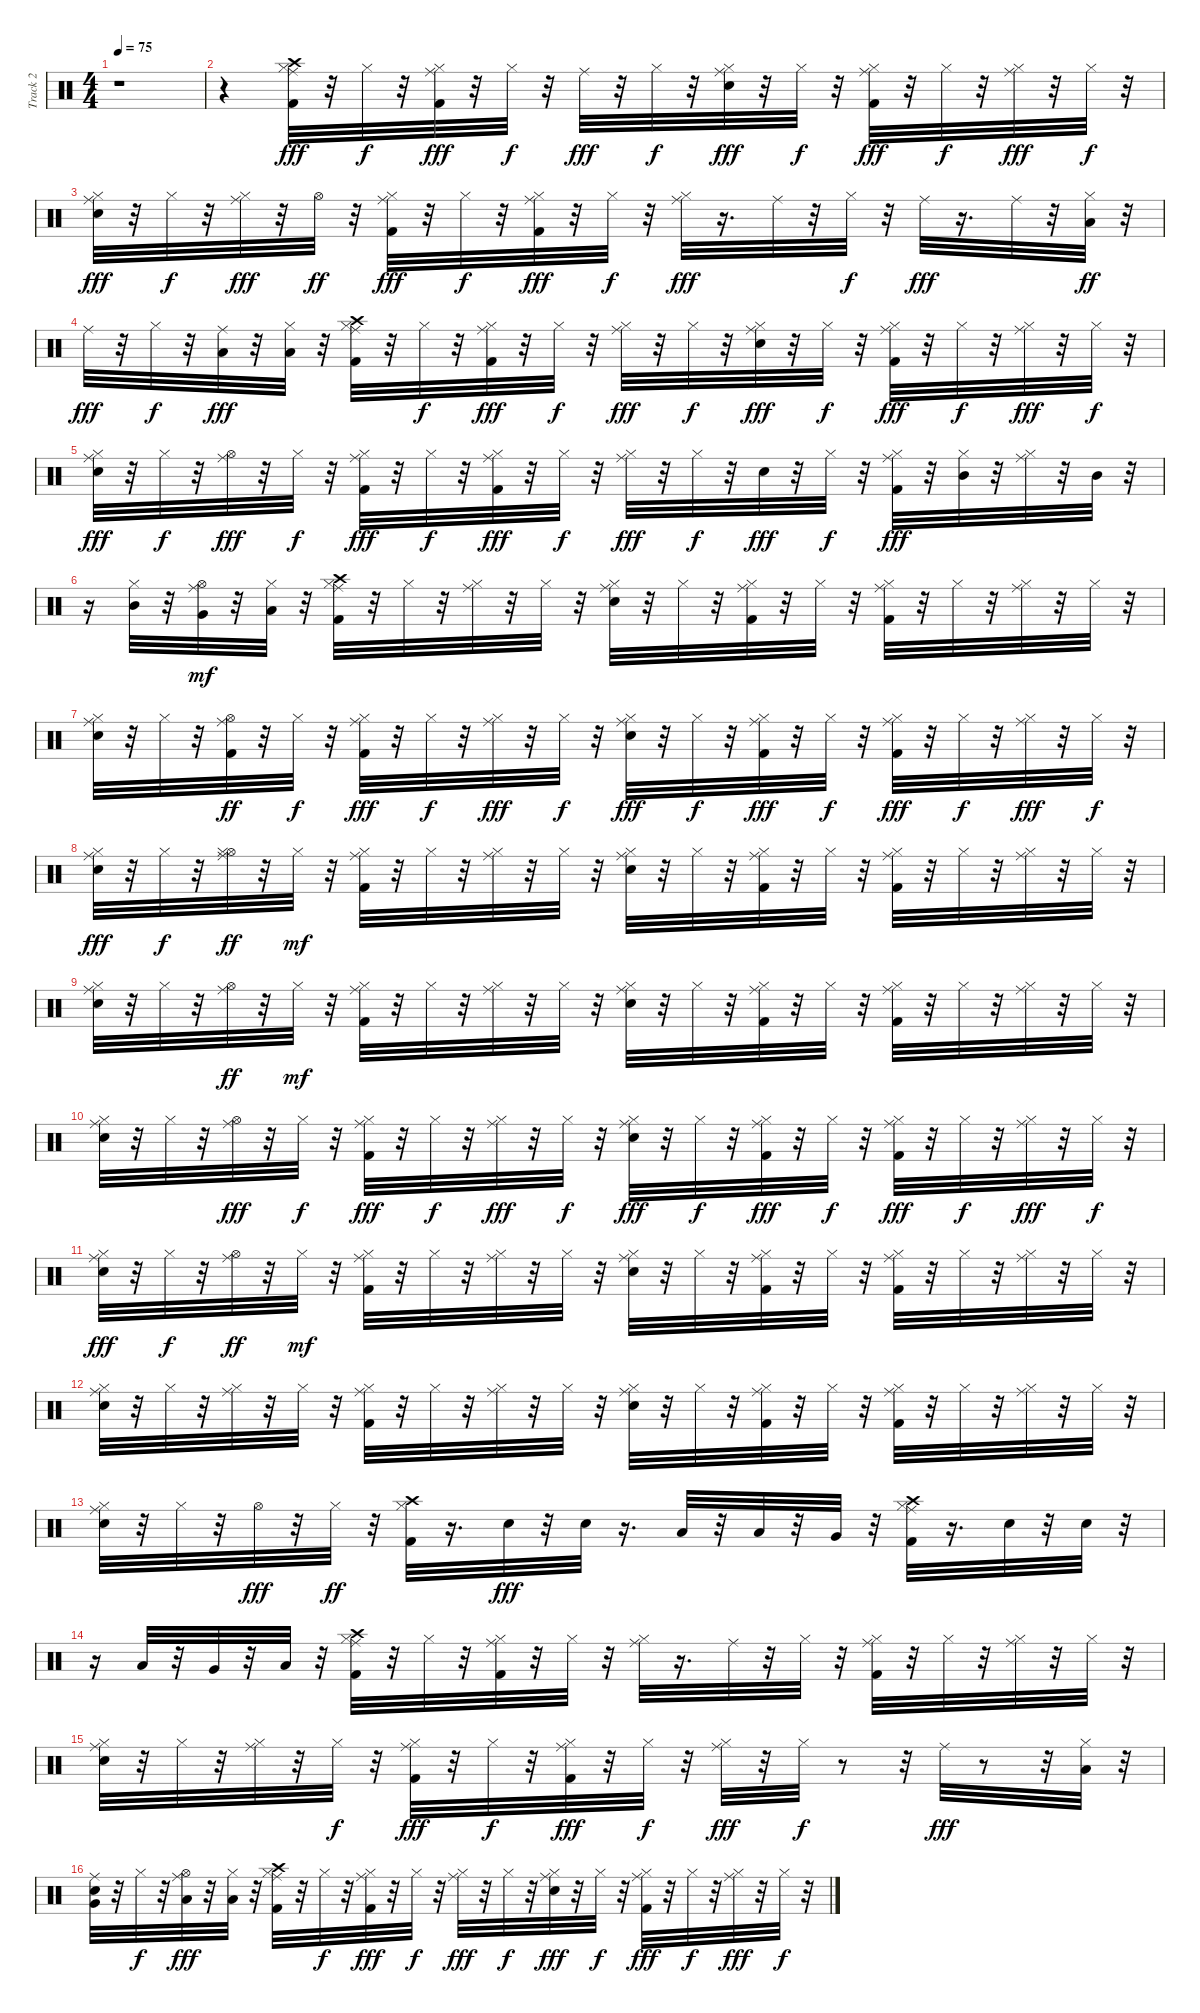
\track ("Track 2" "Track 2") {instrument percussion}
\staff {score}
\articulation defaults
\ts (4 4)
\tempo 75
\clef neutral
\ks c
r.1{dy fff} |
r.4 ("Kick (hit) 2" "Ride (middle)" "Crash high (hit)" "Hi-Hat (closed)").32{balance 8} r.32 "Hi-Hat (closed)".32{dy f} r.32 ("Kick (hit) 2" "Ride (middle)" "Hi-Hat (closed)").32{dy fff} r.32 "Hi-Hat (closed)".32{dy f} r.32 "Ride (middle)".32{dy fff} r.32 "Hi-Hat (closed)".32{dy f} r.32 ("Ride (middle)" "Snare (hit) 2" "Hi-Hat (closed)").32{dy fff} r.32 "Hi-Hat (closed)".32{dy f} r.32 ("Ride (middle)" "Kick (hit) 2" "Hi-Hat (closed)").32{dy fff} r.32 "Hi-Hat (closed)".32{dy f} r.32 ("Ride (middle)" "Hi-Hat (closed)").32{dy fff} r.32 "Hi-Hat (closed)".32{dy f} r.32 |
("Ride (middle)" "Snare (hit) 2" "Hi-Hat (closed)").32{dy fff} r.32 "Hi-Hat (closed)".32{dy f} r.32 ("Ride (middle)" "Hi-Hat (closed)").32{dy fff} r.32 "Hi-Hat (open)".32{dy ff} r.32 ("Kick (hit) 2" "Ride (middle)" "Hi-Hat (closed)").32{dy fff} r.32 "Hi-Hat (closed)".32{dy f} r.32 ("Kick (hit) 2" "Ride (middle)" "Hi-Hat (closed)").32{dy fff} r.32 "Hi-Hat (closed)".32{dy f} r.32 ("Ride (middle)" "Hi-Hat (closed)").32{dy fff} r.16{d} "Ride (middle)".32 r.32 "Hi-Hat (closed)".32{dy f} r.32 "Ride (middle)".32{dy fff} r.16{d} "Ride (middle)".32 r.32 ("Low Tom (hit)" "Hi-Hat (closed)").32{dy ff} r.32 |
"Ride (middle)".32{dy fff} r.32 "Hi-Hat (closed)".32{dy f} r.32 ("Ride (middle)" "Low Floor Tom (hit)").32{dy fff} r.32 ("Low Floor Tom (hit)" "Hi-Hat (closed)").32 r.32 ("Kick (hit) 2" "Ride (middle)" "Crash high (hit)" "Hi-Hat (closed)").32 r.32 "Hi-Hat (closed)".32{dy f} r.32 ("Kick (hit) 2" "Ride (middle)" "Hi-Hat (closed)").32{dy fff} r.32 "Hi-Hat (closed)".32{dy f} r.32 ("Ride (middle)" "Hi-Hat (closed)").32{dy fff} r.32 "Hi-Hat (closed)".32{dy f} r.32 ("Ride (middle)" "Snare (hit) 2" "Hi-Hat (closed)").32{dy fff} r.32 "Hi-Hat (closed)".32{dy f} r.32 ("Ride (middle)" "Kick (hit) 2" "Hi-Hat (closed)").32{dy fff} r.32 "Hi-Hat (closed)".32{dy f} r.32 ("Ride (middle)" "Hi-Hat (closed)").32{dy fff} r.32 "Hi-Hat (closed)".32{dy f} r.32 |
("Snare (hit) 2" "Ride (middle)" "Hi-Hat (closed)").32{dy fff} r.32 "Hi-Hat (closed)".32{dy f} r.32 ("Ride (middle)" "Hi-Hat (open)").32{dy fff} r.32 "Hi-Hat (closed)".32{dy f} r.32 ("Kick (hit) 2" "Ride (middle)" "Hi-Hat (closed)").32{dy fff} r.32 "Hi-Hat (closed)".32{dy f} r.32 ("Ride (middle)" "Kick (hit) 2" "Hi-Hat (closed)").32{dy fff} r.32 "Hi-Hat (closed)".32{dy f} r.32 ("Ride (middle)" "Hi-Hat (closed)").32{dy fff} r.32 "Hi-Hat (closed)".32{dy f} r.32 "Snare (hit) 2".32{dy fff} r.32 "Hi-Hat (closed)".32{dy f} r.32 ("Ride (middle)" "Kick (hit) 2" "Hi-Hat (closed)").32{dy fff} r.32 ("Mid Tom (hit)" "Hi-Hat (closed)").32 r.32 ("Ride (middle)" "Hi-Hat (closed)").32 r.32 "Mid Tom (hit)".32 r.32 |
r.16 ("Mid Tom (hit)" "Hi-Hat (closed)").32 r.32 ("Ride (middle)" "Very Low Tom (hit)" "Hi-Hat (open)").32{dy mf} r.32 ("Low Floor Tom (hit)" "Hi-Hat (closed)").32 r.32 ("Kick (hit) 2" "Ride (middle)" "Crash high (hit)" "Hi-Hat (closed)").32 r.32 "Hi-Hat (closed)".32 r.32 ("Ride (middle)" "Hi-Hat (closed)").32 r.32 "Hi-Hat (closed)".32 r.32 ("Snare (hit) 2" "Ride (middle)" "Hi-Hat (closed)").32 r.32 "Hi-Hat (closed)".32 r.32 ("Ride (middle)" "Kick (hit) 2" "Hi-Hat (closed)").32 r.32 "Hi-Hat (closed)".32 r.32 ("Kick (hit) 2" "Ride (middle)" "Hi-Hat (closed)").32 r.32 "Hi-Hat (closed)".32 r.32 ("Ride (middle)" "Hi-Hat (closed)").32 r.32 "Hi-Hat (closed)".32 r.32 |
("Snare (hit) 2" "Ride (middle)" "Hi-Hat (closed)").32 r.32 "Hi-Hat (closed)".32 r.32 ("Kick (hit) 2" "Ride (middle)" "Hi-Hat (open)").32{dy ff} r.32 "Hi-Hat (closed)".32{dy f} r.32 ("Kick (hit) 2" "Ride (middle)" "Hi-Hat (closed)").32{dy fff} r.32 "Hi-Hat (closed)".32{dy f} r.32 ("Ride (middle)" "Hi-Hat (closed)").32{dy fff} r.32 "Hi-Hat (closed)".32{dy f} r.32 ("Snare (hit) 2" "Ride (middle)" "Hi-Hat (closed)").32{dy fff} r.32 "Hi-Hat (closed)".32{dy f} r.32 ("Kick (hit) 2" "Ride (middle)" "Hi-Hat (closed)").32{dy fff} r.32 "Hi-Hat (closed)".32{dy f} r.32 ("Kick (hit) 2" "Ride (middle)" "Hi-Hat (closed)").32{dy fff} r.32 "Hi-Hat (closed)".32{dy f} r.32 ("Ride (middle)" "Hi-Hat (closed)").32{dy fff} r.32 "Hi-Hat (closed)".32{dy f} r.32 |
("Ride (middle)" "Snare (hit) 2" "Hi-Hat (closed)").32{dy fff} r.32 "Hi-Hat (closed)".32{dy f} r.32 ("Ride (middle)" "Hi-Hat (open)" "Hi-Hat (closed)").32{dy ff} r.32 "Hi-Hat (closed)".32{dy mf} r.32 ("Ride (middle)" "Kick (hit) 2" "Hi-Hat (closed)").32 r.32 "Hi-Hat (closed)".32 r.32 ("Ride (middle)" "Hi-Hat (closed)").32 r.32 "Hi-Hat (closed)".32 r.32 ("Snare (hit) 2" "Ride (middle)" "Hi-Hat (closed)").32 r.32 "Hi-Hat (closed)".32 r.32 ("Kick (hit) 2" "Ride (middle)" "Hi-Hat (closed)").32 r.32 "Hi-Hat (closed)".32 r.32 ("Kick (hit) 2" "Ride (middle)" "Hi-Hat (closed)").32 r.32 "Hi-Hat (closed)".32 r.32 ("Ride (middle)" "Hi-Hat (closed)").32 r.32 "Hi-Hat (closed)".32 r.32 |
("Snare (hit) 2" "Ride (middle)" "Hi-Hat (closed)").32 r.32 "Hi-Hat (closed)".32 r.32 ("Ride (middle)" "Hi-Hat (open)").32{dy ff} r.32 "Hi-Hat (closed)".32{dy mf} r.32 ("Ride (middle)" "Kick (hit) 2" "Hi-Hat (closed)").32 r.32 "Hi-Hat (closed)".32 r.32 ("Ride (middle)" "Hi-Hat (closed)").32 r.32 "Hi-Hat (closed)".32 r.32 ("Ride (middle)" "Snare (hit) 2" "Hi-Hat (closed)").32 r.32 "Hi-Hat (closed)".32 r.32 ("Ride (middle)" "Kick (hit) 2" "Hi-Hat (closed)").32 r.32 "Hi-Hat (closed)".32 r.32 ("Kick (hit) 2" "Ride (middle)" "Hi-Hat (closed)").32 r.32 "Hi-Hat (closed)".32 r.32 ("Ride (middle)" "Hi-Hat (closed)").32 r.32 "Hi-Hat (closed)".32 r.32 |
("Snare (hit) 2" "Ride (middle)" "Hi-Hat (closed)").32 r.32 "Hi-Hat (closed)".32 r.32 ("Ride (middle)" "Hi-Hat (open)").32{dy fff} r.32 "Hi-Hat (closed)".32{dy f} r.32 ("Kick (hit) 2" "Ride (middle)" "Hi-Hat (closed)").32{dy fff} r.32 "Hi-Hat (closed)".32{dy f} r.32 ("Ride (middle)" "Hi-Hat (closed)").32{dy fff} r.32 "Hi-Hat (closed)".32{dy f} r.32 ("Snare (hit) 2" "Ride (middle)" "Hi-Hat (closed)").32{dy fff} r.32 "Hi-Hat (closed)".32{dy f} r.32 ("Ride (middle)" "Kick (hit) 2" "Hi-Hat (closed)").32{dy fff} r.32 "Hi-Hat (closed)".32{dy f} r.32 ("Ride (middle)" "Kick (hit) 2" "Hi-Hat (closed)").32{dy fff} r.32 "Hi-Hat (closed)".32{dy f} r.32 ("Ride (middle)" "Hi-Hat (closed)").32{dy fff} r.32 "Hi-Hat (closed)".32{dy f} r.32 |
("Snare (hit) 2" "Ride (middle)" "Hi-Hat (closed)").32{dy fff} r.32 "Hi-Hat (closed)".32{dy f} r.32 ("Ride (middle)" "Hi-Hat (open)").32{dy ff} r.32 "Hi-Hat (closed)".32{dy mf} r.32 ("Kick (hit) 2" "Ride (middle)" "Hi-Hat (closed)").32 r.32 "Hi-Hat (closed)".32 r.32 ("Ride (middle)" "Hi-Hat (closed)").32 r.32 "Hi-Hat (closed)".32 r.32 ("Ride (middle)" "Snare (hit) 2" "Hi-Hat (closed)").32 r.32 "Hi-Hat (closed)".32 r.32 ("Ride (middle)" "Kick (hit) 2" "Hi-Hat (closed)").32 r.32 "Hi-Hat (closed)".32 r.32 ("Kick (hit) 2" "Ride (middle)" "Hi-Hat (closed)").32 r.32 "Hi-Hat (closed)".32 r.32 ("Ride (middle)" "Hi-Hat (closed)").32 r.32 "Hi-Hat (closed)".32 r.32 |
("Snare (hit) 2" "Ride (middle)" "Hi-Hat (closed)").32 r.32 "Hi-Hat (closed)".32 r.32 ("Ride (middle)" "Hi-Hat (closed)").32 r.32 "Hi-Hat (closed)".32 r.32 ("Kick (hit) 2" "Ride (middle)" "Hi-Hat (closed)").32 r.32 "Hi-Hat (closed)".32 r.32 ("Ride (middle)" "Hi-Hat (closed)").32 r.32 "Hi-Hat (closed)".32 r.32 ("Snare (hit) 2" "Ride (middle)" "Hi-Hat (closed)").32 r.32 "Hi-Hat (closed)".32 r.32 ("Kick (hit) 2" "Ride (middle)" "Hi-Hat (closed)").32 r.32 "Hi-Hat (closed)".32 r.32 ("Kick (hit) 2" "Ride (middle)" "Hi-Hat (closed)").32 r.32 "Hi-Hat (closed)".32 r.32 ("Ride (middle)" "Hi-Hat (closed)").32 r.32 "Hi-Hat (closed)".32 r.32 |
("Snare (hit) 2" "Ride (middle)" "Hi-Hat (closed)").32 r.32 "Hi-Hat (closed)".32 r.32 "Hi-Hat (open)".32{dy fff} r.32 "Hi-Hat (closed)".32{dy ff} r.32 ("Kick (hit) 2" "Crash high (hit)" "Hi-Hat (closed)").32 r.16{d} "Electric Snare (hit)".32{dy fff} r.32 "Electric Snare (hit)".32 r.16{d} "Low Tom (hit)".32 r.32 "Low Tom (hit)".32 r.32 "Very Low Tom (hit)".32 r.32 ("Kick (hit) 2" "Ride (middle)" "Crash high (hit)" "Hi-Hat (closed)").32 r.16{d} "Electric Snare (hit)".32 r.32 "Electric Snare (hit)".32 r.32 |
r.16 "Low Tom (hit)".32 r.32 "Very Low Tom (hit)".32 r.32 "Low Floor Tom (hit)".32 r.32 ("Ride (middle)" "Kick (hit) 2" "Crash high (hit)" "Hi-Hat (closed)").32 r.32 "Hi-Hat (closed)".32 r.32 ("Kick (hit) 2" "Ride (middle)" "Hi-Hat (closed)").32 r.32 "Hi-Hat (closed)".32 r.32 ("Ride (middle)" "Hi-Hat (closed)").32 r.16{d} "Ride (middle)".32 r.32 "Hi-Hat (closed)".32 r.32 ("Kick (hit) 2" "Ride (middle)" "Hi-Hat (closed)").32 r.32 "Hi-Hat (closed)".32 r.32 ("Ride (middle)" "Hi-Hat (closed)").32 r.32 "Hi-Hat (closed)".32 r.32 |
("Snare (hit) 2" "Ride (middle)" "Hi-Hat (closed)").32 r.32 "Hi-Hat (closed)".32 r.32 ("Ride (middle)" "Hi-Hat (closed)").32 r.32 "Hi-Hat (closed)".32{dy f} r.32 ("Kick (hit) 2" "Ride (middle)" "Hi-Hat (closed)").32{dy fff} r.32 "Hi-Hat (closed)".32{dy f} r.32 ("Ride (middle)" "Kick (hit) 2" "Hi-Hat (closed)").32{dy fff} r.32 "Hi-Hat (closed)".32{dy f} r.32 ("Ride (middle)" "Hi-Hat (closed)").32{dy fff} r.32 "Hi-Hat (closed)".32{dy f} r.8 r.32 "Ride (middle)".32{dy fff} r.8 r.32 ("Low Tom (hit)" "Hi-Hat (closed)").32 r.32 |
("Snare (hit) 2" "Ride (middle)" "Very Low Tom (hit)").32 r.32 "Hi-Hat (closed)".32{dy f} r.32 ("Ride (middle)" "Low Floor Tom (hit)" "Hi-Hat (open)").32{dy fff} r.32 ("Low Floor Tom (hit)" "Hi-Hat (closed)").32 r.32 ("Kick (hit) 2" "Ride (middle)" "Crash high (hit)" "Hi-Hat (closed)").32 r.32 "Hi-Hat (closed)".32{dy f} r.32 ("Kick (hit) 2" "Ride (middle)" "Hi-Hat (closed)").32{dy fff} r.32 "Hi-Hat (closed)".32{dy f} r.32 ("Ride (middle)" "Hi-Hat (closed)").32{dy fff} r.32 "Hi-Hat (closed)".32{dy f} r.32 ("Snare (hit) 2" "Ride (middle)" "Hi-Hat (closed)").32{dy fff} r.32 "Hi-Hat (closed)".32{dy f} r.32 ("Kick (hit) 2" "Ride (middle)" "Hi-Hat (closed)").32{dy fff} r.32 "Hi-Hat (closed)".32{dy f} r.32 ("Ride (middle)" "Hi-Hat (closed)").32{dy fff} r.32 "Hi-Hat (closed)".32{dy f} r.32
